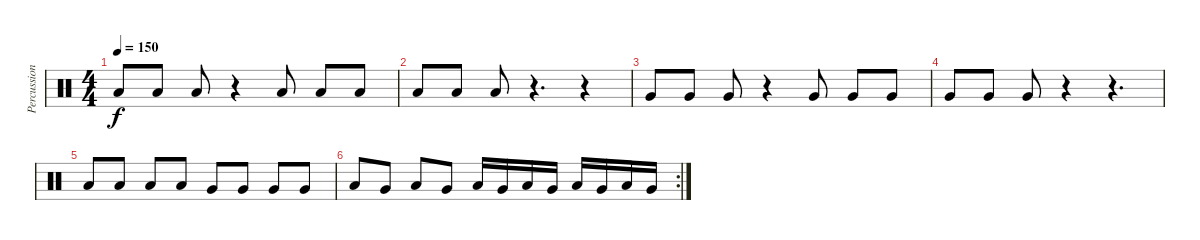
\track ("Percussion" "Percussion") {instrument percussion}
\staff {score}
\articulation defaults
\ts (4 4)
\tempo 150
\clef neutral
\ks c "Low Tom (hit)".8{dy f} "Low Tom (hit)".8 "Low Tom (hit)".8
r.4 "Low Tom (hit)".8 "Low Tom (hit)".8 "Low Tom (hit)".8 |
"Low Tom (hit)".8 "Low Tom (hit)".8 "Low Tom (hit)".8 r.4{d} r.4 |
"Very Low Tom (hit)".8 "Very Low Tom (hit)".8 "Very Low Tom (hit)".8 r.4 "Very Low Tom (hit)".8 "Very Low Tom (hit)".8 "Very Low Tom (hit)".8 |
"Very Low Tom (hit)".8 "Very Low Tom (hit)".8 "Very Low Tom (hit)".8 r.4 r.4{d} |
"Low Tom (hit)".8 "Low Tom (hit)".8 "Low Tom (hit)".8 "Low Tom (hit)".8 "Very Low Tom (hit)".8 "Very Low Tom (hit)".8 "Very Low Tom (hit)".8 "Very Low Tom (hit)".8 |
\rc 2 "Low Tom (hit)".8 "Very Low Tom (hit)".8 "Low Tom (hit)".8 "Very Low Tom (hit)".8 "Low Tom (hit)".16 "Very Low Tom (hit)".16 "Low Tom (hit)".16 "Very Low Tom (hit)".16 "Low Tom (hit)".16 "Very Low Tom (hit)".16 "Low Tom (hit)".16 "Very Low Tom (hit)".16
